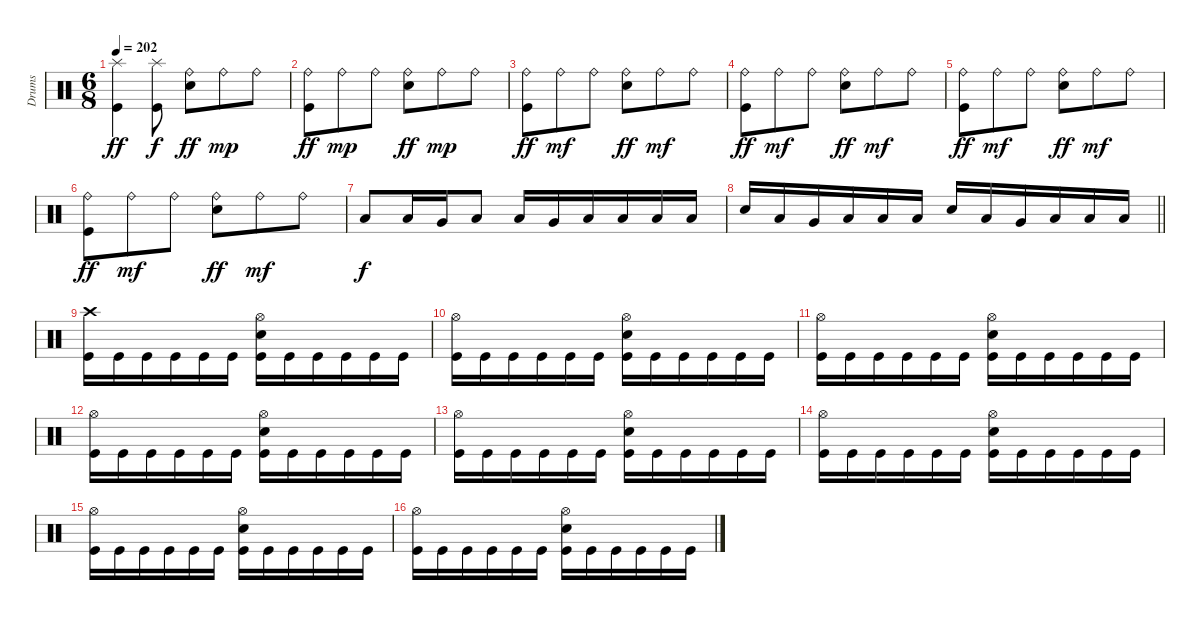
\track ("Drums" "Drums") {instrument percussion}
\staff {score}
\articulation defaults
\ts (6 8)
\tempo 202
\clef neutral
\ks c
("Splash (hit)" "Kick (hit)").4{dy ff} ("Splash (hit)" "Kick (hit)").8{dy f} ("Ride (bell)" "Electric Snare (hit)").8{dy ff} "Ride (bell)".8{dy mp} "Ride (bell)".8 |
("Ride (bell)" "Kick (hit)").8{dy ff} "Ride (bell)".8{dy mp} "Ride (bell)".8 ("Ride (bell)" "Electric Snare (hit)").8{dy ff} "Ride (bell)".8{dy mp} "Ride (bell)".8 |
("Ride (bell)" "Kick (hit)").8{dy ff} "Ride (bell)".8{dy mf} "Ride (bell)".8 ("Ride (bell)" "Electric Snare (hit)").8{dy ff} "Ride (bell)".8{dy mf} "Ride (bell)".8 |
("Ride (bell)" "Kick (hit)").8{dy ff} "Ride (bell)".8{dy mf} "Ride (bell)".8 ("Ride (bell)" "Electric Snare (hit)").8{dy ff} "Ride (bell)".8{dy mf} "Ride (bell)".8 |
("Ride (bell)" "Kick (hit)").8{dy ff} "Ride (bell)".8{dy mf} "Ride (bell)".8 ("Ride (bell)" "Electric Snare (hit)").8{dy ff} "Ride (bell)".8{dy mf} "Ride (bell)".8 |
("Ride (bell)" "Kick (hit)").8{dy ff} "Ride (bell)".8{dy mf} "Ride (bell)".8 ("Ride (bell)" "Electric Snare (hit)").8{dy ff} "Ride (bell)".8{dy mf} "Ride (bell)".8 |
"Low Floor Tom (hit)".8{dy f} "Low Tom (hit)".16 "Very Low Tom (hit)".16 "Low Floor Tom (hit)".8 "Low Tom (hit)".16 "Very Low Tom (hit)".16 "Low Floor Tom (hit)".16 "Low Floor Tom (hit)".16 "Low Floor Tom (hit)".16 "Low Floor Tom (hit)".16 |
\barLineRight lightlight "Electric Snare (hit)".16 "Low Tom (hit)".16 "Very Low Tom (hit)".16 "Low Floor Tom (hit)".16 "Low Floor Tom (hit)".16 "Low Floor Tom (hit)".16 "Electric Snare (hit)".16 "Low Tom (hit)".16 "Very Low Tom (hit)".16 "Low Floor Tom (hit)".16 "Low Floor Tom (hit)".16 "Low Floor Tom (hit)".16
|
\section ("" "")
("Crash high (hit)" "Kick (hit)").16 "Kick (hit)".16 "Kick (hit)".16 "Kick (hit)".16 "Kick (hit)".16 "Kick (hit)".16 ("Hi-Hat (open)" "Electric Snare (hit)" "Kick (hit)").16 "Kick (hit)".16 "Kick (hit)".16 "Kick (hit)".16 "Kick (hit)".16 "Kick (hit)".16 |
("Hi-Hat (open)" "Kick (hit)").16 "Kick (hit)".16 "Kick (hit)".16 "Kick (hit)".16 "Kick (hit)".16 "Kick (hit)".16 ("Hi-Hat (open)" "Electric Snare (hit)" "Kick (hit)").16 "Kick (hit)".16 "Kick (hit)".16 "Kick (hit)".16 "Kick (hit)".16 "Kick (hit)".16 |
("Hi-Hat (open)" "Kick (hit)").16 "Kick (hit)".16 "Kick (hit)".16 "Kick (hit)".16 "Kick (hit)".16 "Kick (hit)".16 ("Hi-Hat (open)" "Electric Snare (hit)" "Kick (hit)").16 "Kick (hit)".16 "Kick (hit)".16 "Kick (hit)".16 "Kick (hit)".16 "Kick (hit)".16 |
("Hi-Hat (open)" "Kick (hit)").16 "Kick (hit)".16 "Kick (hit)".16 "Kick (hit)".16 "Kick (hit)".16 "Kick (hit)".16 ("Hi-Hat (open)" "Electric Snare (hit)" "Kick (hit)").16 "Kick (hit)".16 "Kick (hit)".16 "Kick (hit)".16 "Kick (hit)".16 "Kick (hit)".16 |
("Hi-Hat (open)" "Kick (hit)").16 "Kick (hit)".16 "Kick (hit)".16 "Kick (hit)".16 "Kick (hit)".16 "Kick (hit)".16 ("Hi-Hat (open)" "Electric Snare (hit)" "Kick (hit)").16 "Kick (hit)".16 "Kick (hit)".16 "Kick (hit)".16 "Kick (hit)".16 "Kick (hit)".16 |
("Hi-Hat (open)" "Kick (hit)").16 "Kick (hit)".16 "Kick (hit)".16 "Kick (hit)".16 "Kick (hit)".16 "Kick (hit)".16 ("Hi-Hat (open)" "Electric Snare (hit)" "Kick (hit)").16 "Kick (hit)".16 "Kick (hit)".16 "Kick (hit)".16 "Kick (hit)".16 "Kick (hit)".16 |
("Hi-Hat (open)" "Kick (hit)").16 "Kick (hit)".16 "Kick (hit)".16 "Kick (hit)".16 "Kick (hit)".16 "Kick (hit)".16 ("Hi-Hat (open)" "Electric Snare (hit)" "Kick (hit)").16 "Kick (hit)".16 "Kick (hit)".16 "Kick (hit)".16 "Kick (hit)".16 "Kick (hit)".16 |
("Hi-Hat (open)" "Kick (hit)").16 "Kick (hit)".16 "Kick (hit)".16 "Kick (hit)".16 "Kick (hit)".16 "Kick (hit)".16 ("Hi-Hat (open)" "Electric Snare (hit)" "Kick (hit)").16 "Kick (hit)".16 "Kick (hit)".16 "Kick (hit)".16 "Kick (hit)".16 "Kick (hit)".16
